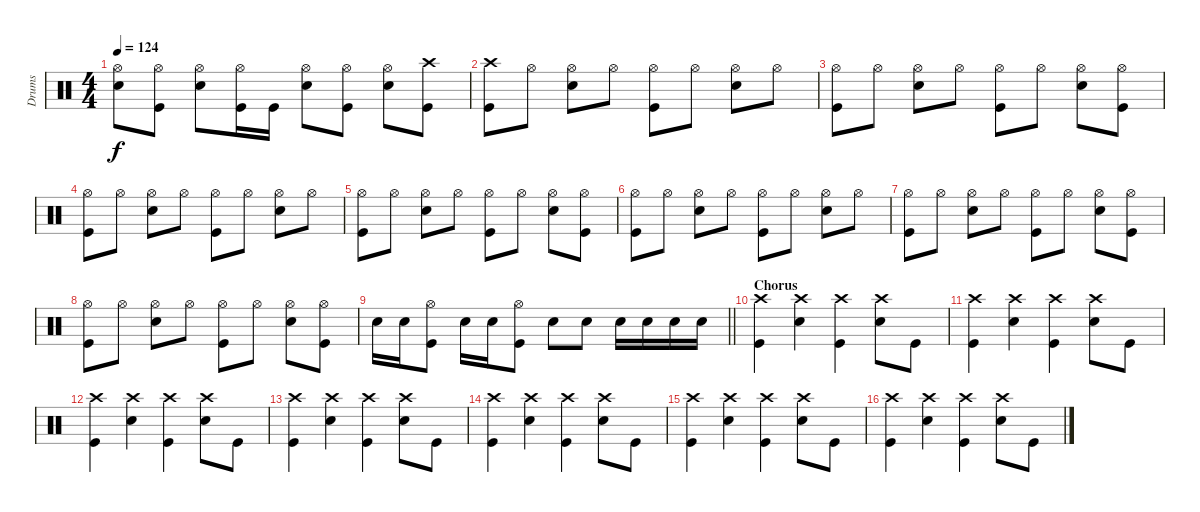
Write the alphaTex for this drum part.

\track ("Drums" "Drums") {instrument percussion}
\staff {score}
\articulation defaults
\ts (4 4)
\tempo 124
\clef neutral
\ks c
("Hi-Hat (open)" "Snare (hit) 2").8{dy f} ("Kick (hit)" "Hi-Hat (open)").8 ("Snare (hit) 2" "Hi-Hat (open)").8 ("Kick (hit)" "Hi-Hat (open)").16 "Kick (hit)".16 ("Hi-Hat (open)" "Snare (hit) 2").8 ("Kick (hit)" "Hi-Hat (open)").8 ("Snare (hit) 2" "Hi-Hat (open)").8 ("Kick (hit)" "Crash high (hit)").8 |
("Kick (hit)" "Crash high (hit)").8 "Hi-Hat (open)".8 ("Snare (hit) 2" "Hi-Hat (open)").8 "Hi-Hat (open)".8 ("Kick (hit)" "Hi-Hat (open)").8 "Hi-Hat (open)".8 ("Snare (hit) 2" "Hi-Hat (open)").8 "Hi-Hat (open)".8 |
("Kick (hit)" "Hi-Hat (open)").8 "Hi-Hat (open)".8 ("Snare (hit) 2" "Hi-Hat (open)").8 "Hi-Hat (open)".8 ("Kick (hit)" "Hi-Hat (open)").8 "Hi-Hat (open)".8 ("Snare (hit) 2" "Hi-Hat (open)").8 ("Hi-Hat (open)" "Kick (hit)").8 |
("Kick (hit)" "Hi-Hat (open)").8 "Hi-Hat (open)".8 ("Snare (hit) 2" "Hi-Hat (open)").8 "Hi-Hat (open)".8 ("Kick (hit)" "Hi-Hat (open)").8 "Hi-Hat (open)".8 ("Snare (hit) 2" "Hi-Hat (open)").8 "Hi-Hat (open)".8 |
("Kick (hit)" "Hi-Hat (open)").8 "Hi-Hat (open)".8 ("Snare (hit) 2" "Hi-Hat (open)").8 "Hi-Hat (open)".8 ("Kick (hit)" "Hi-Hat (open)").8 "Hi-Hat (open)".8 ("Snare (hit) 2" "Hi-Hat (open)").8 ("Hi-Hat (open)" "Kick (hit)").8 |
("Kick (hit)" "Hi-Hat (open)").8 "Hi-Hat (open)".8 ("Snare (hit) 2" "Hi-Hat (open)").8 "Hi-Hat (open)".8 ("Kick (hit)" "Hi-Hat (open)").8 "Hi-Hat (open)".8 ("Snare (hit) 2" "Hi-Hat (open)").8 "Hi-Hat (open)".8 |
("Kick (hit)" "Hi-Hat (open)").8 "Hi-Hat (open)".8 ("Snare (hit) 2" "Hi-Hat (open)").8 "Hi-Hat (open)".8 ("Kick (hit)" "Hi-Hat (open)").8 "Hi-Hat (open)".8 ("Snare (hit) 2" "Hi-Hat (open)").8 ("Hi-Hat (open)" "Kick (hit)").8 |
("Kick (hit)" "Hi-Hat (open)").8 "Hi-Hat (open)".8 ("Snare (hit) 2" "Hi-Hat (open)").8 "Hi-Hat (open)".8 ("Kick (hit)" "Hi-Hat (open)").8 "Hi-Hat (open)".8 ("Snare (hit) 2" "Hi-Hat (open)").8 ("Hi-Hat (open)" "Kick (hit)").8 |
\barLineRight lightlight "Snare (hit) 2".16 "Snare (hit) 2".16
("Kick (hit)" "Hi-Hat (open)").8 "Snare (hit) 2".16 "Snare (hit) 2".16 ("Kick (hit)" "Hi-Hat (open)").8 "Snare (hit) 2".8 "Snare (hit) 2".8 "Snare (hit) 2".16 "Snare (hit) 2".16 "Snare (hit) 2".16 "Snare (hit) 2".16 |
\section ("" "Chorus")
("Kick (hit)" "Crash high (hit)").4 ("Snare (hit) 2" "Crash high (hit)").4 ("Kick (hit)" "Crash high (hit)").4 ("Snare (hit) 2" "Crash high (hit)").8 "Kick (hit)".8 |
("Kick (hit)" "Crash high (hit)").4 ("Snare (hit) 2" "Crash high (hit)").4 ("Kick (hit)" "Crash high (hit)").4 ("Snare (hit) 2" "Crash high (hit)").8 "Kick (hit)".8 |
("Kick (hit)" "Crash high (hit)").4 ("Snare (hit) 2" "Crash high (hit)").4 ("Kick (hit)" "Crash high (hit)").4 ("Snare (hit) 2" "Crash high (hit)").8 "Kick (hit)".8 |
("Kick (hit)" "Crash high (hit)").4 ("Snare (hit) 2" "Crash high (hit)").4 ("Kick (hit)" "Crash high (hit)").4 ("Snare (hit) 2" "Crash high (hit)").8 "Kick (hit)".8 |
("Kick (hit)" "Crash high (hit)").4 ("Snare (hit) 2" "Crash high (hit)").4 ("Kick (hit)" "Crash high (hit)").4 ("Snare (hit) 2" "Crash high (hit)").8 "Kick (hit)".8 |
("Kick (hit)" "Crash high (hit)").4 ("Snare (hit) 2" "Crash high (hit)").4 ("Kick (hit)" "Crash high (hit)").4 ("Snare (hit) 2" "Crash high (hit)").8 "Kick (hit)".8 |
("Kick (hit)" "Crash high (hit)").4 ("Snare (hit) 2" "Crash high (hit)").4 ("Kick (hit)" "Crash high (hit)").4 ("Snare (hit) 2" "Crash high (hit)").8 "Kick (hit)".8
